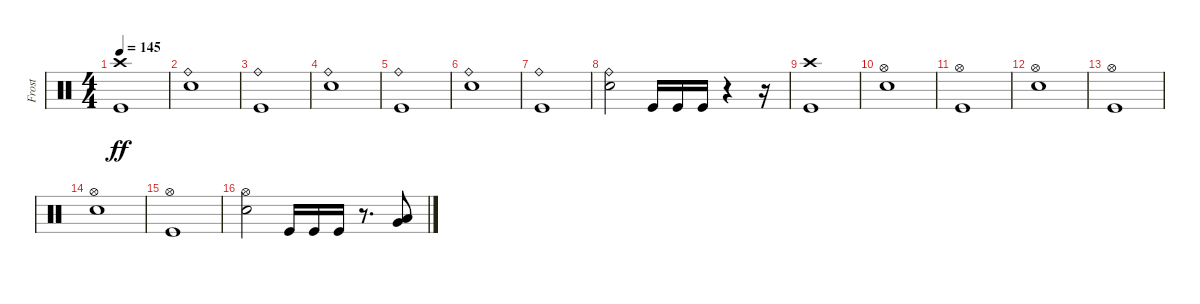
\track ("Frost" "Frost") {instrument percussion}
\staff {score}
\articulation defaults
\ts (4 4)
\tempo 145
\clef neutral
\ks c
("Crash high (hit)" "Kick (hit)").1{dy ff} |
("Ride (bell)" "Snare (hit) 2").1 |
("Ride (bell)" "Kick (hit)").1 |
("Ride (bell)" "Snare (hit) 2").1 |
("Ride (bell)" "Kick (hit)").1 |
("Ride (bell)" "Snare (hit) 2").1 |
("Ride (bell)" "Kick (hit)").1 |
("Ride (bell)" "Snare (hit) 2").2 "Kick (hit)".16 "Kick (hit)".16 "Kick (hit)".16 r.4 r.16 |
("Crash high (hit)" "Kick (hit)").1 |
("Hi-Hat (open)" "Snare (hit) 2").1 |
("Hi-Hat (open)" "Kick (hit)").1 |
("Hi-Hat (open)" "Snare (hit) 2").1 |
("Hi-Hat (open)" "Kick (hit)").1 |
("Hi-Hat (open)" "Snare (hit) 2").1 |
("Hi-Hat (open)" "Kick (hit)").1 |
("Hi-Hat (open)" "Snare (hit) 2").2 "Kick (hit)".16 "Kick (hit)".16 "Kick (hit)".16 r.8{d} ("Low Floor Tom (hit)" "Very Low Tom (hit)").8
